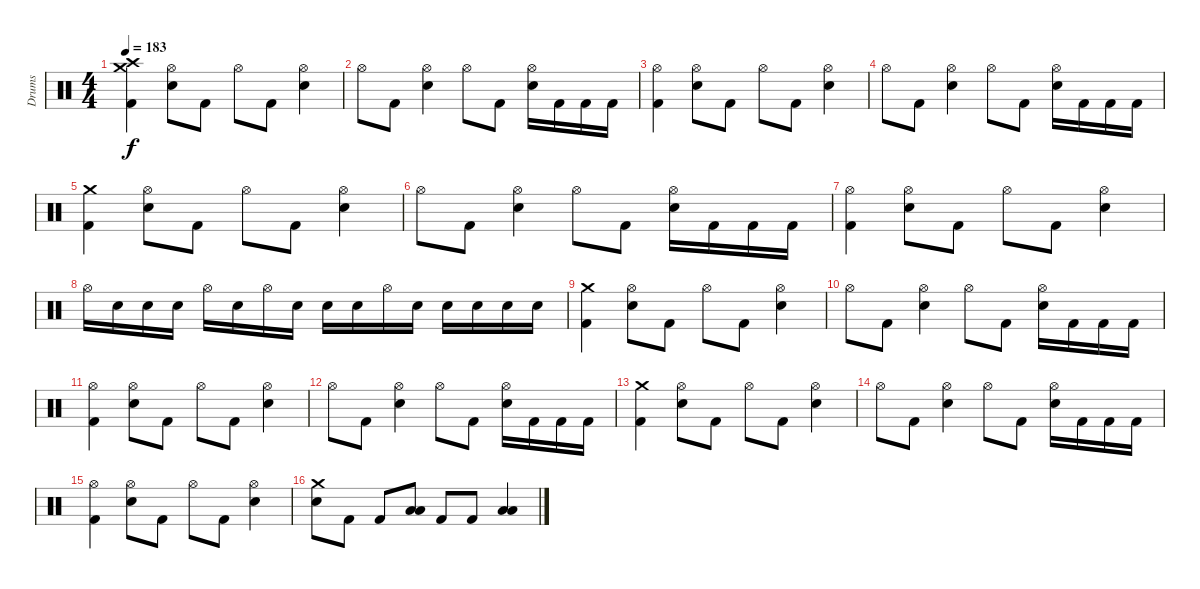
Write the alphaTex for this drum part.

\track ("Drums" "Drums") {instrument percussion}
\staff {score}
\articulation defaults
\ts (4 4)
\tempo 183
\clef neutral
\ks c
("Crash medium (hit)" "Crash high (hit)" "Kick (hit) 2").4{dy f} ("Hi-Hat (open)" "Electric Snare (hit)").8 "Kick (hit) 2".8 "Hi-Hat (open)".8 "Kick (hit) 2".8 ("Hi-Hat (open)" "Electric Snare (hit)").4 |
"Hi-Hat (open)".8 "Kick (hit) 2".8 ("Hi-Hat (open)" "Electric Snare (hit)").4 "Hi-Hat (open)".8 "Kick (hit) 2".8 ("Hi-Hat (open)" "Electric Snare (hit)").16 "Kick (hit) 2".16 "Kick (hit) 2".16 "Kick (hit) 2".16 |
("Hi-Hat (open)" "Kick (hit) 2").4 ("Hi-Hat (open)" "Electric Snare (hit)").8 "Kick (hit) 2".8 "Hi-Hat (open)".8 "Kick (hit) 2".8 ("Hi-Hat (open)" "Electric Snare (hit)").4 |
"Hi-Hat (open)".8 "Kick (hit) 2".8 ("Hi-Hat (open)" "Electric Snare (hit)").4 "Hi-Hat (open)".8 "Kick (hit) 2".8 ("Hi-Hat (open)" "Electric Snare (hit)").16 "Kick (hit) 2".16 "Kick (hit) 2".16 "Kick (hit) 2".16 |
("Crash medium (hit)" "Kick (hit) 2").4 ("Hi-Hat (open)" "Electric Snare (hit)").8 "Kick (hit) 2".8 "Hi-Hat (open)".8 "Kick (hit) 2".8 ("Hi-Hat (open)" "Electric Snare (hit)").4 |
"Hi-Hat (open)".8 "Kick (hit) 2".8 ("Hi-Hat (open)" "Electric Snare (hit)").4 "Hi-Hat (open)".8 "Kick (hit) 2".8 ("Hi-Hat (open)" "Electric Snare (hit)").16 "Kick (hit) 2".16 "Kick (hit) 2".16 "Kick (hit) 2".16 |
("Hi-Hat (open)" "Kick (hit) 2").4 ("Hi-Hat (open)" "Electric Snare (hit)").8 "Kick (hit) 2".8 "Hi-Hat (open)".8 "Kick (hit) 2".8 ("Hi-Hat (open)" "Electric Snare (hit)").4 |
"Hi-Hat (open)".16 "Electric Snare (hit)".16 "Electric Snare (hit)".16 "Electric Snare (hit)".16 "Hi-Hat (open)".16 "Electric Snare (hit)".16 "Hi-Hat (open)".16 "Electric Snare (hit)".16 "Electric Snare (hit)".16 "Electric Snare (hit)".16 "Hi-Hat (open)".16 "Electric Snare (hit)".16 "Electric Snare (hit)".16 "Electric Snare (hit)".16 "Electric Snare (hit)".16 "Electric Snare (hit)".16 |
("Crash medium (hit)" "Kick (hit) 2").4 ("Hi-Hat (open)" "Electric Snare (hit)").8 "Kick (hit) 2".8 "Hi-Hat (open)".8 "Kick (hit) 2".8 ("Hi-Hat (open)" "Electric Snare (hit)").4 |
"Hi-Hat (open)".8 "Kick (hit) 2".8 ("Hi-Hat (open)" "Electric Snare (hit)").4 "Hi-Hat (open)".8 "Kick (hit) 2".8 ("Hi-Hat (open)" "Electric Snare (hit)").16 "Kick (hit) 2".16 "Kick (hit) 2".16 "Kick (hit) 2".16 |
("Hi-Hat (open)" "Kick (hit) 2").4 ("Hi-Hat (open)" "Electric Snare (hit)").8 "Kick (hit) 2".8 "Hi-Hat (open)".8 "Kick (hit) 2".8 ("Hi-Hat (open)" "Electric Snare (hit)").4 |
"Hi-Hat (open)".8 "Kick (hit) 2".8 ("Hi-Hat (open)" "Electric Snare (hit)").4 "Hi-Hat (open)".8 "Kick (hit) 2".8 ("Hi-Hat (open)" "Electric Snare (hit)").16 "Kick (hit) 2".16 "Kick (hit) 2".16 "Kick (hit) 2".16 |
("Crash medium (hit)" "Kick (hit) 2").4 ("Hi-Hat (open)" "Electric Snare (hit)").8 "Kick (hit) 2".8 "Hi-Hat (open)".8 "Kick (hit) 2".8 ("Hi-Hat (open)" "Electric Snare (hit)").4 |
"Hi-Hat (open)".8 "Kick (hit) 2".8 ("Hi-Hat (open)" "Electric Snare (hit)").4 "Hi-Hat (open)".8 "Kick (hit) 2".8 ("Hi-Hat (open)" "Electric Snare (hit)").16 "Kick (hit) 2".16 "Kick (hit) 2".16 "Kick (hit) 2".16 |
("Hi-Hat (open)" "Kick (hit) 2").4 ("Hi-Hat (open)" "Electric Snare (hit)").8 "Kick (hit) 2".8 "Hi-Hat (open)".8 "Kick (hit) 2".8 ("Hi-Hat (open)" "Electric Snare (hit)").4 |
("Crash medium (hit)" "Electric Snare (hit)").8 "Kick (hit) 2".8 "Kick (hit) 2".8 ("Low Tom (hit)" "Low Tom (hit)").8 "Kick (hit) 2".8 "Kick (hit) 2".8 ("Low Tom (hit)" "Low Floor Tom (hit)").4
